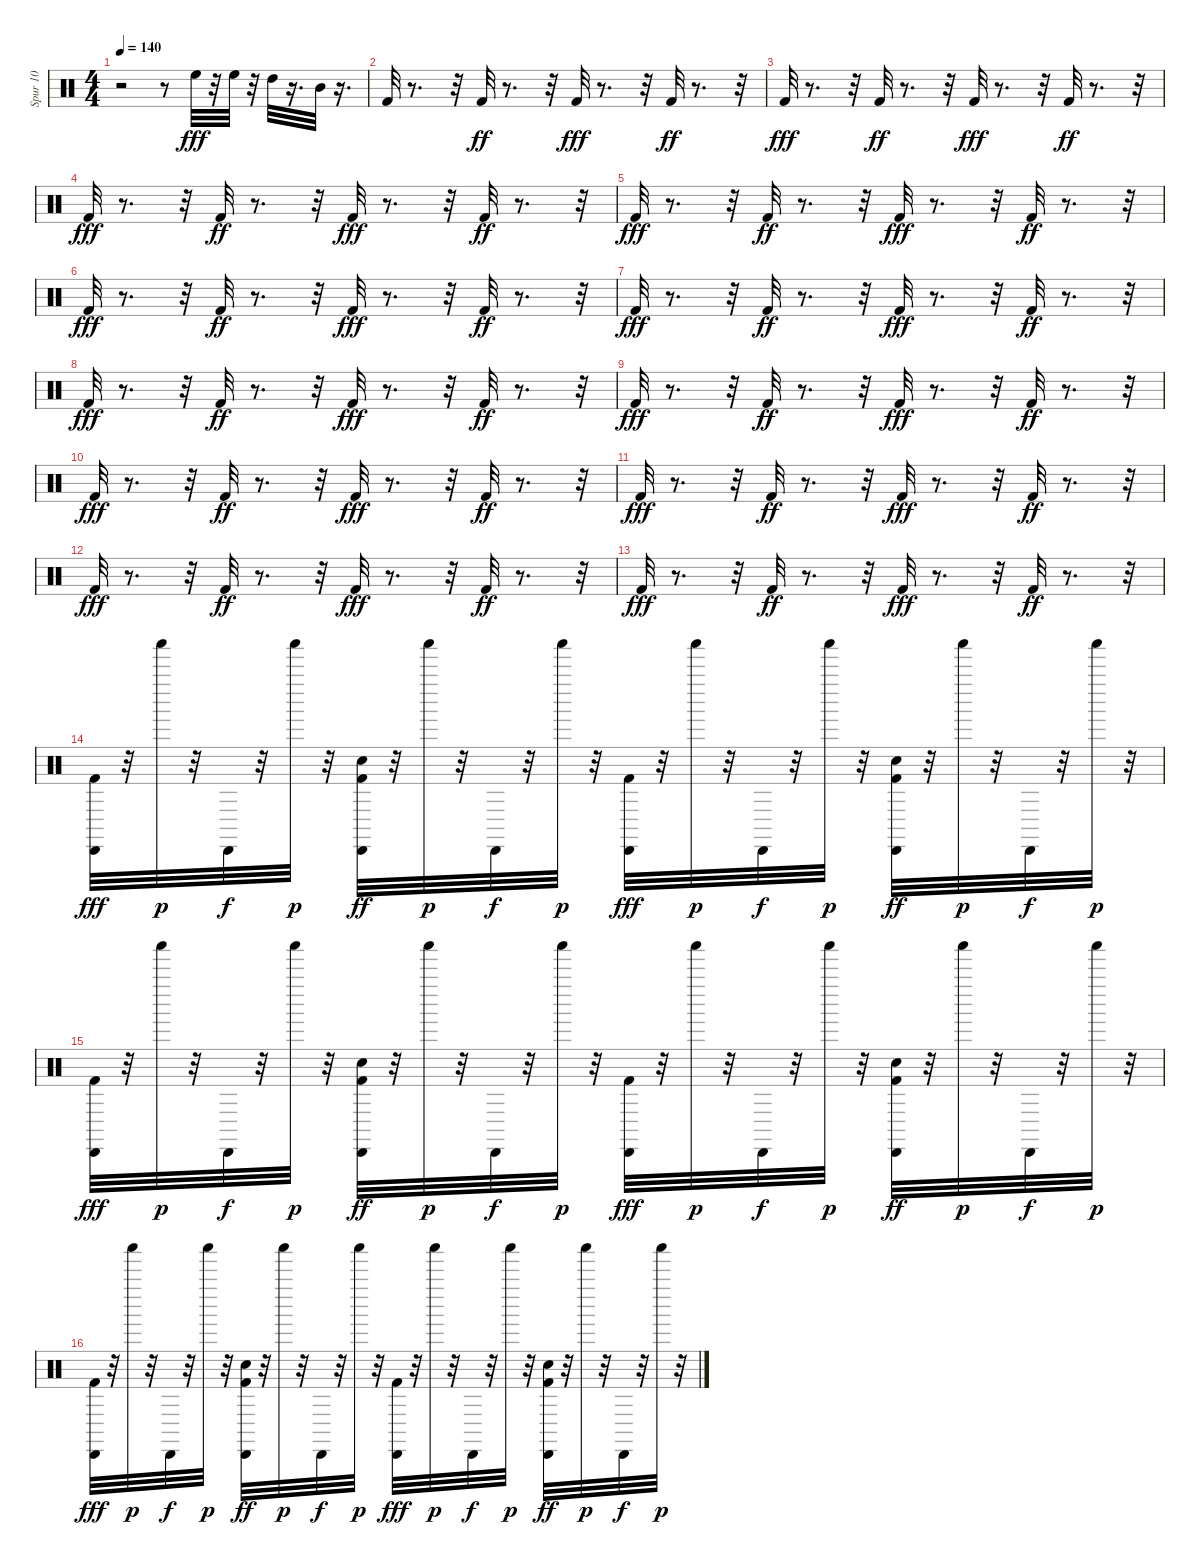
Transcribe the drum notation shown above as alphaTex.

\track ("Spur 10" "Spur 10") {instrument percussion}
\staff {score}
\articulation defaults
\ts (4 4)
\tempo 140
\clef neutral
\ks c
r.2{dy fff} r.8 "High Floor Tom (hit)".32 r.32 "High Floor Tom (hit)".32 r.32 "High Tom (hit)".32 r.16{d} "Mid Tom (hit)".32 r.16{d} |
"Kick (hit) 2".32 r.8{d} r.32 "Kick (hit) 2".32{dy ff} r.8{d} r.32 "Kick (hit) 2".32{dy fff} r.8{d} r.32 "Kick (hit) 2".32{dy ff} r.8{d} r.32 |
"Kick (hit) 2".32{dy fff} r.8{d} r.32 "Kick (hit) 2".32{dy ff} r.8{d} r.32 "Kick (hit) 2".32{dy fff} r.8{d} r.32 "Kick (hit) 2".32{dy ff} r.8{d} r.32 |
"Kick (hit) 2".32{dy fff} r.8{d} r.32 "Kick (hit) 2".32{dy ff} r.8{d} r.32 "Kick (hit) 2".32{dy fff} r.8{d} r.32 "Kick (hit) 2".32{dy ff} r.8{d} r.32 |
"Kick (hit) 2".32{dy fff} r.8{d} r.32 "Kick (hit) 2".32{dy ff} r.8{d} r.32 "Kick (hit) 2".32{dy fff} r.8{d} r.32 "Kick (hit) 2".32{dy ff} r.8{d} r.32 |
"Kick (hit) 2".32{dy fff} r.8{d} r.32 "Kick (hit) 2".32{dy ff} r.8{d} r.32 "Kick (hit) 2".32{dy fff} r.8{d} r.32 "Kick (hit) 2".32{dy ff} r.8{d} r.32 |
"Kick (hit) 2".32{dy fff} r.8{d} r.32 "Kick (hit) 2".32{dy ff} r.8{d} r.32 "Kick (hit) 2".32{dy fff} r.8{d} r.32 "Kick (hit) 2".32{dy ff} r.8{d} r.32 |
"Kick (hit) 2".32{dy fff} r.8{d} r.32 "Kick (hit) 2".32{dy ff} r.8{d} r.32 "Kick (hit) 2".32{dy fff} r.8{d} r.32 "Kick (hit) 2".32{dy ff} r.8{d} r.32 |
"Kick (hit) 2".32{dy fff} r.8{d} r.32 "Kick (hit) 2".32{dy ff} r.8{d} r.32 "Kick (hit) 2".32{dy fff} r.8{d} r.32 "Kick (hit) 2".32{dy ff} r.8{d} r.32 |
"Kick (hit) 2".32{dy fff} r.8{d} r.32 "Kick (hit) 2".32{dy ff} r.8{d} r.32 "Kick (hit) 2".32{dy fff} r.8{d} r.32 "Kick (hit) 2".32{dy ff} r.8{d} r.32 |
"Kick (hit) 2".32{dy fff} r.8{d} r.32 "Kick (hit) 2".32{dy ff} r.8{d} r.32 "Kick (hit) 2".32{dy fff} r.8{d} r.32 "Kick (hit) 2".32{dy ff} r.8{d} r.32 |
"Kick (hit) 2".32{dy fff} r.8{d} r.32 "Kick (hit) 2".32{dy ff} r.8{d} r.32 "Kick (hit) 2".32{dy fff} r.8{d} r.32 "Kick (hit) 2".32{dy ff} r.8{d} r.32 |
"Kick (hit) 2".32{dy fff} r.8{d} r.32 "Kick (hit) 2".32{dy ff} r.8{d} r.32 "Kick (hit) 2".32{dy fff} r.8{d} r.32 "Kick (hit) 2".32{dy ff} r.8{d} r.32 |
("Cabasa (hit)" "Kick (hit) 2").32{dy fff} r.32 "Shaker (hit)".32{dy p} r.32 "Cabasa (hit)".32{dy f} r.32 "Shaker (hit)".32{dy p} r.32 ("Snare (hit) 2" "Cabasa (hit)" "Kick (hit) 2").32{dy ff} r.32 "Shaker (hit)".32{dy p} r.32 "Cabasa (hit)".32{dy f} r.32 "Shaker (hit)".32{dy p} r.32 ("Cabasa (hit)" "Kick (hit) 2").32{dy fff} r.32 "Shaker (hit)".32{dy p} r.32 "Cabasa (hit)".32{dy f} r.32 "Shaker (hit)".32{dy p} r.32 ("Snare (hit) 2" "Cabasa (hit)" "Kick (hit) 2").32{dy ff} r.32 "Shaker (hit)".32{dy p} r.32 "Cabasa (hit)".32{dy f} r.32 "Shaker (hit)".32{dy p} r.32 |
("Cabasa (hit)" "Kick (hit) 2").32{dy fff} r.32 "Shaker (hit)".32{dy p} r.32 "Cabasa (hit)".32{dy f} r.32 "Shaker (hit)".32{dy p} r.32 ("Snare (hit) 2" "Cabasa (hit)" "Kick (hit) 2").32{dy ff} r.32 "Shaker (hit)".32{dy p} r.32 "Cabasa (hit)".32{dy f} r.32 "Shaker (hit)".32{dy p} r.32 ("Cabasa (hit)" "Kick (hit) 2").32{dy fff} r.32 "Shaker (hit)".32{dy p} r.32 "Cabasa (hit)".32{dy f} r.32 "Shaker (hit)".32{dy p} r.32 ("Snare (hit) 2" "Cabasa (hit)" "Kick (hit) 2").32{dy ff} r.32 "Shaker (hit)".32{dy p} r.32 "Cabasa (hit)".32{dy f} r.32 "Shaker (hit)".32{dy p} r.32 |
("Cabasa (hit)" "Kick (hit) 2").32{dy fff} r.32 "Shaker (hit)".32{dy p} r.32 "Cabasa (hit)".32{dy f} r.32 "Shaker (hit)".32{dy p} r.32 ("Snare (hit) 2" "Cabasa (hit)" "Kick (hit) 2").32{dy ff} r.32 "Shaker (hit)".32{dy p} r.32 "Cabasa (hit)".32{dy f} r.32 "Shaker (hit)".32{dy p} r.32 ("Cabasa (hit)" "Kick (hit) 2").32{dy fff} r.32 "Shaker (hit)".32{dy p} r.32 "Cabasa (hit)".32{dy f} r.32 "Shaker (hit)".32{dy p} r.32 ("Snare (hit) 2" "Cabasa (hit)" "Kick (hit) 2").32{dy ff} r.32 "Shaker (hit)".32{dy p} r.32 "Cabasa (hit)".32{dy f} r.32 "Shaker (hit)".32{dy p} r.32
